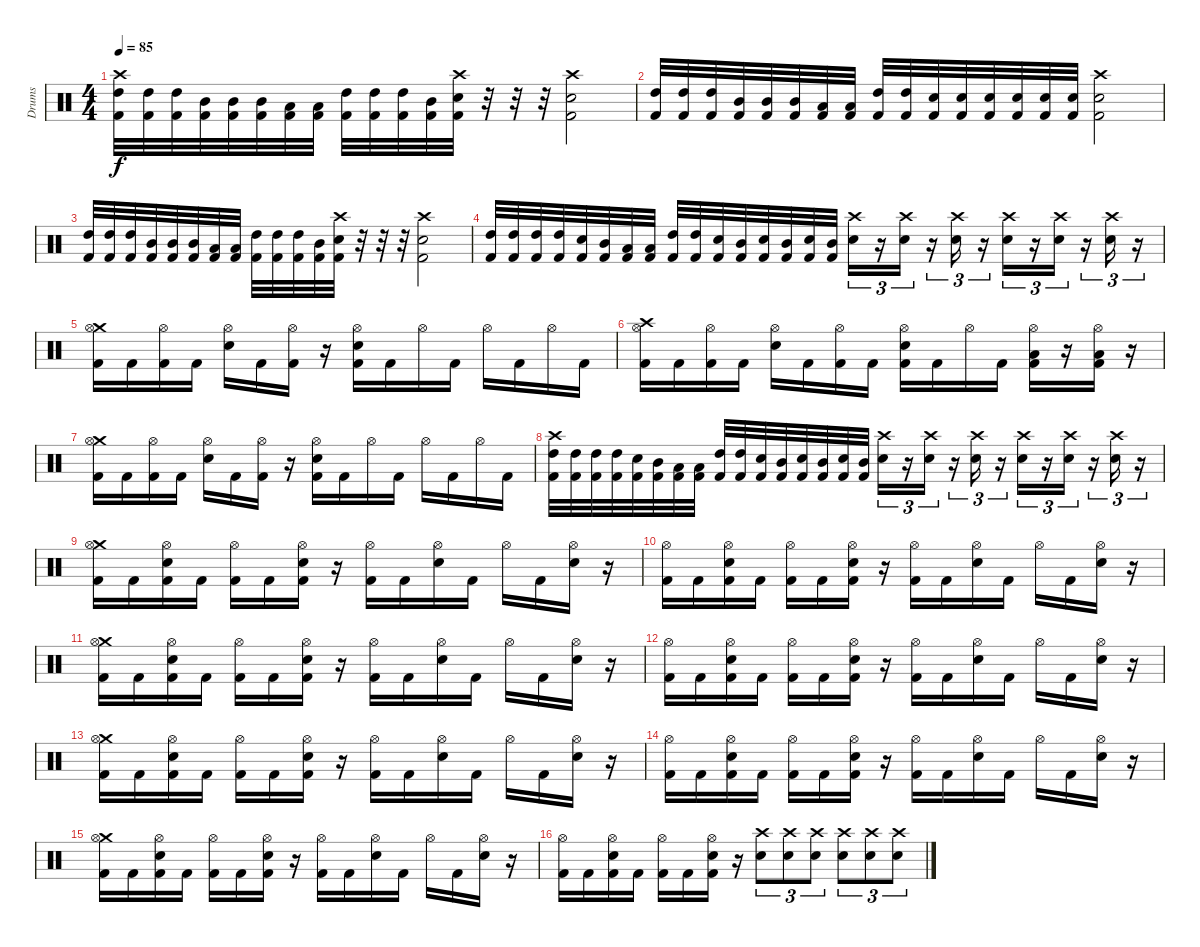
\track ("Drums" "Drums") {instrument percussion}
\staff {score}
\articulation defaults
\ts (4 4)
\tempo 85
\clef neutral
\ks c
("Crash high (hit)" "High Tom (hit)" "Kick (hit) 2").32{dy f} ("High Tom (hit)" "Kick (hit) 2").32 ("High Tom (hit)" "Kick (hit) 2").32 ("Mid Tom (hit)" "Kick (hit) 2").32 ("Mid Tom (hit)" "Kick (hit) 2").32 ("Mid Tom (hit)" "Kick (hit) 2").32 ("Low Tom (hit)" "Kick (hit) 2").32 ("Low Tom (hit)" "Kick (hit) 2").32 ("High Tom (hit)" "Kick (hit) 2").32 ("High Tom (hit)" "Kick (hit) 2").32 ("High Tom (hit)" "Kick (hit) 2").32 ("Mid Tom (hit)" "Kick (hit) 2").32 ("Crash high (hit)" "Electric Snare (hit)" "Kick (hit) 2").32 r.32 r.32 r.32 ("Crash high (hit)" "Electric Snare (hit)" "Kick (hit) 2").2 |
("High Tom (hit)" "Kick (hit) 2").32 ("High Tom (hit)" "Kick (hit) 2").32 ("High Tom (hit)" "Kick (hit) 2").32 ("Mid Tom (hit)" "Kick (hit) 2").32 ("Mid Tom (hit)" "Kick (hit) 2").32 ("Mid Tom (hit)" "Kick (hit) 2").32 ("Low Tom (hit)" "Kick (hit) 2").32 ("Low Tom (hit)" "Kick (hit) 2").32 ("High Tom (hit)" "Kick (hit) 2").32 ("High Tom (hit)" "Kick (hit) 2").32 ("Electric Snare (hit)" "Kick (hit) 2").32 ("Electric Snare (hit)" "Kick (hit) 2").32 ("Electric Snare (hit)" "Kick (hit) 2").32 ("Electric Snare (hit)" "Kick (hit) 2").32 ("Electric Snare (hit)" "Kick (hit) 2").32 ("Electric Snare (hit)" "Kick (hit) 2").32 ("Crash high (hit)" "Electric Snare (hit)" "Kick (hit) 2").2 |
("High Tom (hit)" "Kick (hit) 2").32 ("High Tom (hit)" "Kick (hit) 2").32 ("High Tom (hit)" "Kick (hit) 2").32 ("Mid Tom (hit)" "Kick (hit) 2").32 ("Mid Tom (hit)" "Kick (hit) 2").32 ("Mid Tom (hit)" "Kick (hit) 2").32 ("Low Tom (hit)" "Kick (hit) 2").32 ("Low Tom (hit)" "Kick (hit) 2").32 ("High Tom (hit)" "Kick (hit) 2").32 ("High Tom (hit)" "Kick (hit) 2").32 ("High Tom (hit)" "Kick (hit) 2").32 ("Mid Tom (hit)" "Kick (hit) 2").32 ("Crash high (hit)" "Electric Snare (hit)" "Kick (hit) 2").32 r.32 r.32 r.32 ("Crash high (hit)" "Electric Snare (hit)" "Kick (hit) 2").2 |
("High Tom (hit)" "Kick (hit) 2").32 ("High Tom (hit)" "Kick (hit) 2").32 ("High Tom (hit)" "Kick (hit) 2").32 ("High Tom (hit)" "Kick (hit) 2").32 ("Electric Snare (hit)" "Kick (hit) 2").32 ("Mid Tom (hit)" "Kick (hit) 2").32 ("Low Tom (hit)" "Kick (hit) 2").32 ("Low Tom (hit)" "Kick (hit) 2").32 ("High Tom (hit)" "Kick (hit) 2").32 ("High Tom (hit)" "Kick (hit) 2").32 ("Electric Snare (hit)" "Kick (hit) 2").32 ("Mid Tom (hit)" "Kick (hit) 2").32 ("Electric Snare (hit)" "Kick (hit) 2").32 ("Mid Tom (hit)" "Kick (hit) 2").32 ("Electric Snare (hit)" "Kick (hit) 2").32 ("Mid Tom (hit)" "Kick (hit) 2").32 ("Crash high (hit)" "Electric Snare (hit)").16{tu (3 2)} r.16{tu (3 2)} ("Crash high (hit)" "Electric Snare (hit)").16{tu (3 2)} r.16{tu (3 2)} ("Crash high (hit)" "Electric Snare (hit)").16{tu (3 2)} r.16{tu (3 2)} ("Crash high (hit)" "Electric Snare (hit)").16{tu (3 2)} r.16{tu (3 2)} ("Crash high (hit)" "Electric Snare (hit)").16{tu (3 2)} r.16{tu (3 2)} ("Crash high (hit)" "Electric Snare (hit)").16{tu (3 2)} r.16{tu (3 2)} |
("Crash medium (hit)" "Hi-Hat (open)" "Kick (hit) 2").16 "Kick (hit) 2".16 ("Hi-Hat (open)" "Kick (hit) 2").16 "Kick (hit) 2".16 ("Hi-Hat (open)" "Electric Snare (hit)").16 "Kick (hit) 2".16 ("Hi-Hat (open)" "Kick (hit) 2").16 r.16 ("Hi-Hat (open)" "Electric Snare (hit)" "Kick (hit) 2").16 "Kick (hit) 2".16 "Hi-Hat (open)".16 "Kick (hit) 2".16 "Hi-Hat (open)".16 "Kick (hit) 2".16 "Hi-Hat (open)".16 "Kick (hit) 2".16 |
("Crash high (hit)" "Hi-Hat (open)" "Kick (hit) 2").16 "Kick (hit) 2".16 ("Hi-Hat (open)" "Kick (hit) 2").16 "Kick (hit) 2".16 ("Hi-Hat (open)" "Electric Snare (hit)").16 "Kick (hit) 2".16 ("Hi-Hat (open)" "Kick (hit) 2").16 "Kick (hit) 2".16 ("Hi-Hat (open)" "Electric Snare (hit)" "Kick (hit) 2").16 "Kick (hit) 2".16 "Hi-Hat (open)".16 "Kick (hit) 2".16 ("Hi-Hat (open)" "Low Tom (hit)" "Kick (hit) 2").16 r.16 ("Hi-Hat (open)" "Low Tom (hit)" "Kick (hit) 2").16 r.16 |
("Crash medium (hit)" "Hi-Hat (open)" "Kick (hit) 2").16 "Kick (hit) 2".16 ("Hi-Hat (open)" "Kick (hit) 2").16 "Kick (hit) 2".16 ("Hi-Hat (open)" "Electric Snare (hit)").16 "Kick (hit) 2".16 ("Hi-Hat (open)" "Kick (hit) 2").16 r.16 ("Hi-Hat (open)" "Electric Snare (hit)" "Kick (hit) 2").16 "Kick (hit) 2".16 "Hi-Hat (open)".16 "Kick (hit) 2".16 "Hi-Hat (open)".16 "Kick (hit) 2".16 "Hi-Hat (open)".16 "Kick (hit) 2".16 |
("Crash high (hit)" "High Tom (hit)" "Kick (hit) 2").32 ("High Tom (hit)" "Kick (hit) 2").32 ("High Tom (hit)" "Kick (hit) 2").32 ("High Tom (hit)" "Kick (hit) 2").32 ("Electric Snare (hit)" "Kick (hit) 2").32 ("Mid Tom (hit)" "Kick (hit) 2").32 ("Low Tom (hit)" "Kick (hit) 2").32 ("Low Tom (hit)" "Kick (hit) 2").32 ("High Tom (hit)" "Kick (hit) 2").32 ("High Tom (hit)" "Kick (hit) 2").32 ("Electric Snare (hit)" "Kick (hit) 2").32 ("Mid Tom (hit)" "Kick (hit) 2").32 ("Electric Snare (hit)" "Kick (hit) 2").32 ("Mid Tom (hit)" "Kick (hit) 2").32 ("Electric Snare (hit)" "Kick (hit) 2").32 ("Mid Tom (hit)" "Kick (hit) 2").32 ("Crash high (hit)" "Electric Snare (hit)").16{tu (3 2)} r.16{tu (3 2)} ("Crash high (hit)" "Electric Snare (hit)").16{tu (3 2)} r.16{tu (3 2)} ("Crash high (hit)" "Electric Snare (hit)").16{tu (3 2)} r.16{tu (3 2)} ("Crash high (hit)" "Electric Snare (hit)").16{tu (3 2)} r.16{tu (3 2)} ("Crash high (hit)" "Electric Snare (hit)").16{tu (3 2)} r.16{tu (3 2)} ("Crash high (hit)" "Electric Snare (hit)").16{tu (3 2)} r.16{tu (3 2)} |
("Crash medium (hit)" "Hi-Hat (open)" "Kick (hit) 2").16 "Kick (hit) 2".16 ("Hi-Hat (open)" "Electric Snare (hit)" "Kick (hit) 2").16 "Kick (hit) 2".16 ("Hi-Hat (open)" "Kick (hit) 2").16 "Kick (hit) 2".16 ("Hi-Hat (open)" "Electric Snare (hit)" "Kick (hit) 2").16 r.16 ("Hi-Hat (open)" "Kick (hit) 2").16 "Kick (hit) 2".16 ("Hi-Hat (open)" "Electric Snare (hit)").16 "Kick (hit) 2".16 "Hi-Hat (open)".16 "Kick (hit) 2".16 ("Hi-Hat (open)" "Electric Snare (hit)").16 r.16 |
("Hi-Hat (open)" "Kick (hit) 2").16 "Kick (hit) 2".16 ("Hi-Hat (open)" "Electric Snare (hit)" "Kick (hit) 2").16 "Kick (hit) 2".16 ("Hi-Hat (open)" "Kick (hit) 2").16 "Kick (hit) 2".16 ("Hi-Hat (open)" "Electric Snare (hit)" "Kick (hit) 2").16 r.16 ("Hi-Hat (open)" "Kick (hit) 2").16 "Kick (hit) 2".16 ("Hi-Hat (open)" "Electric Snare (hit)").16 "Kick (hit) 2".16 "Hi-Hat (open)".16 "Kick (hit) 2".16 ("Hi-Hat (open)" "Electric Snare (hit)").16 r.16 |
("Crash medium (hit)" "Hi-Hat (open)" "Kick (hit) 2").16 "Kick (hit) 2".16 ("Hi-Hat (open)" "Electric Snare (hit)" "Kick (hit) 2").16 "Kick (hit) 2".16 ("Hi-Hat (open)" "Kick (hit) 2").16 "Kick (hit) 2".16 ("Hi-Hat (open)" "Electric Snare (hit)" "Kick (hit) 2").16 r.16 ("Hi-Hat (open)" "Kick (hit) 2").16 "Kick (hit) 2".16 ("Hi-Hat (open)" "Electric Snare (hit)").16 "Kick (hit) 2".16 "Hi-Hat (open)".16 "Kick (hit) 2".16 ("Hi-Hat (open)" "Electric Snare (hit)").16 r.16 |
("Hi-Hat (open)" "Kick (hit) 2").16 "Kick (hit) 2".16 ("Hi-Hat (open)" "Electric Snare (hit)" "Kick (hit) 2").16 "Kick (hit) 2".16 ("Hi-Hat (open)" "Kick (hit) 2").16 "Kick (hit) 2".16 ("Hi-Hat (open)" "Electric Snare (hit)" "Kick (hit) 2").16 r.16 ("Hi-Hat (open)" "Kick (hit) 2").16 "Kick (hit) 2".16 ("Hi-Hat (open)" "Electric Snare (hit)").16 "Kick (hit) 2".16 "Hi-Hat (open)".16 "Kick (hit) 2".16 ("Hi-Hat (open)" "Electric Snare (hit)").16 r.16 |
("Crash medium (hit)" "Hi-Hat (open)" "Kick (hit) 2").16 "Kick (hit) 2".16 ("Hi-Hat (open)" "Electric Snare (hit)" "Kick (hit) 2").16 "Kick (hit) 2".16 ("Hi-Hat (open)" "Kick (hit) 2").16 "Kick (hit) 2".16 ("Hi-Hat (open)" "Electric Snare (hit)" "Kick (hit) 2").16 r.16 ("Hi-Hat (open)" "Kick (hit) 2").16 "Kick (hit) 2".16 ("Hi-Hat (open)" "Electric Snare (hit)").16 "Kick (hit) 2".16 "Hi-Hat (open)".16 "Kick (hit) 2".16 ("Hi-Hat (open)" "Electric Snare (hit)").16 r.16 |
("Hi-Hat (open)" "Kick (hit) 2").16 "Kick (hit) 2".16 ("Hi-Hat (open)" "Electric Snare (hit)" "Kick (hit) 2").16 "Kick (hit) 2".16 ("Hi-Hat (open)" "Kick (hit) 2").16 "Kick (hit) 2".16 ("Hi-Hat (open)" "Electric Snare (hit)" "Kick (hit) 2").16 r.16 ("Hi-Hat (open)" "Kick (hit) 2").16 "Kick (hit) 2".16 ("Hi-Hat (open)" "Electric Snare (hit)").16 "Kick (hit) 2".16 "Hi-Hat (open)".16 "Kick (hit) 2".16 ("Hi-Hat (open)" "Electric Snare (hit)").16 r.16 |
("Crash medium (hit)" "Hi-Hat (open)" "Kick (hit) 2").16 "Kick (hit) 2".16 ("Hi-Hat (open)" "Electric Snare (hit)" "Kick (hit) 2").16 "Kick (hit) 2".16 ("Hi-Hat (open)" "Kick (hit) 2").16 "Kick (hit) 2".16 ("Hi-Hat (open)" "Electric Snare (hit)" "Kick (hit) 2").16 r.16 ("Hi-Hat (open)" "Kick (hit) 2").16 "Kick (hit) 2".16 ("Hi-Hat (open)" "Electric Snare (hit)").16 "Kick (hit) 2".16 "Hi-Hat (open)".16 "Kick (hit) 2".16 ("Hi-Hat (open)" "Electric Snare (hit)").16 r.16 |
("Hi-Hat (open)" "Kick (hit) 2").16 "Kick (hit) 2".16 ("Hi-Hat (open)" "Electric Snare (hit)" "Kick (hit) 2").16 "Kick (hit) 2".16 ("Hi-Hat (open)" "Kick (hit) 2").16 "Kick (hit) 2".16 ("Hi-Hat (open)" "Electric Snare (hit)" "Kick (hit) 2").16 r.16 ("Crash high (hit)" "Electric Snare (hit)").8{tu (3 2)} ("Crash high (hit)" "Electric Snare (hit)").8{tu (3 2)} ("Crash high (hit)" "Electric Snare (hit)").8{tu (3 2)} ("Crash high (hit)" "Electric Snare (hit)").8{tu (3 2)} ("Crash high (hit)" "Electric Snare (hit)").8{tu (3 2)} ("Crash high (hit)" "Electric Snare (hit)").8{tu (3 2)}
